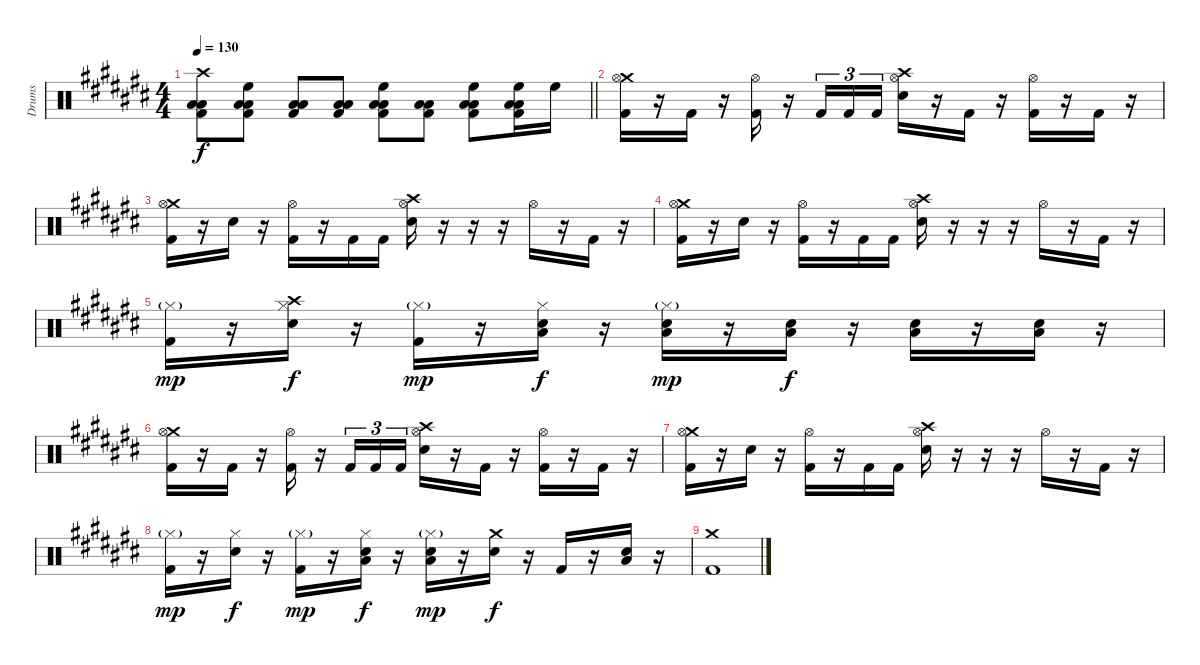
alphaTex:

\track ("Drums" "Drums") {instrument percussion}
\staff {score}
\articulation defaults
\ts (4 4)
\tempo 130
\clef neutral
\barLineRight lightlight
\ks a#minor
("Crash high (hit)" "Low Tom (hit)" "Low Floor Tom (hit)" "Kick (hit) 2").8{dy f} ("High Floor Tom (hit)" "Low Tom (hit)" "Low Floor Tom (hit)" "Kick (hit) 2").8 ("Low Tom (hit)" "Low Floor Tom (hit)" "Kick (hit) 2").8 ("Low Tom (hit)" "Low Floor Tom (hit)" "Kick (hit) 2").8 ("High Floor Tom (hit)" "Low Tom (hit)" "Low Floor Tom (hit)" "Kick (hit) 2").8 ("Low Tom (hit)" "Low Floor Tom (hit)" "Kick (hit) 2").8 ("High Floor Tom (hit)" "Low Tom (hit)" "Low Floor Tom (hit)" "Kick (hit) 2").8 ("High Floor Tom (hit)" "Low Tom (hit)" "Low Floor Tom (hit)" "Kick (hit) 2").16 "High Floor Tom (hit)".16 |
\section ("" "")
("Crash medium (hit)" "Hi-Hat (open)" "Kick (hit) 2").16 r.16 "Kick (hit) 2".16 r.16 ("Hi-Hat (open)" "Kick (hit) 2").16 r.16 "Kick (hit) 2".16{tu (3 2)} "Kick (hit) 2".16{tu (3 2)} "Kick (hit) 2".16{tu (3 2)} ("Crash high (hit)" "Hi-Hat (open)" "Electric Snare (hit)").16 r.16 "Kick (hit) 2".16 r.16 ("Hi-Hat (open)" "Kick (hit) 2").16 r.16 "Kick (hit) 2".16 r.16 |
("Crash medium (hit)" "Hi-Hat (open)" "Kick (hit) 2").16 r.16 "Electric Snare (hit)".16 r.16 ("Hi-Hat (open)" "Kick (hit) 2").16 r.16 "Kick (hit) 2".16 "Kick (hit) 2".16 ("Crash high (hit)" "Hi-Hat (open)" "Electric Snare (hit)").16 r.16 r.16 r.16 "Hi-Hat (open)".16 r.16 "Kick (hit) 2".16 r.16 |
("Crash medium (hit)" "Hi-Hat (open)" "Kick (hit) 2").16 r.16 "Electric Snare (hit)".16 r.16 ("Hi-Hat (open)" "Kick (hit) 2").16 r.16 "Kick (hit) 2".16 "Kick (hit) 2".16 ("Crash high (hit)" "Hi-Hat (open)" "Electric Snare (hit)").16 r.16 r.16 r.16 "Hi-Hat (open)".16 r.16 "Kick (hit) 2".16 r.16 |
("Hi-Hat (closed)"{g} "Kick (hit) 2").16{dy mp} r.16 ("Crash high (hit)" "Hi-Hat (closed)" "Electric Snare (hit)").16{dy f} r.16 ("Hi-Hat (closed)"{g} "Kick (hit) 2").16{dy mp} r.16 ("Hi-Hat (closed)" "Low Tom (hit)" "Electric Snare (hit)").16{dy f} r.16 ("Hi-Hat (closed)"{g} "Low Tom (hit)" "Electric Snare (hit)").16{dy mp} r.16 ("Low Tom (hit)" "Electric Snare (hit)").16{dy f} r.16 ("Low Tom (hit)" "Electric Snare (hit)").16 r.16 ("Low Tom (hit)" "Electric Snare (hit)").16 r.16 |
("Crash medium (hit)" "Hi-Hat (open)" "Kick (hit) 2").16 r.16 "Kick (hit) 2".16 r.16 ("Hi-Hat (open)" "Kick (hit) 2").16 r.16 "Kick (hit) 2".16{tu (3 2)} "Kick (hit) 2".16{tu (3 2)} "Kick (hit) 2".16{tu (3 2)} ("Crash high (hit)" "Hi-Hat (open)" "Electric Snare (hit)").16 r.16 "Kick (hit) 2".16 r.16 ("Hi-Hat (open)" "Kick (hit) 2").16 r.16 "Kick (hit) 2".16 r.16 |
("Crash medium (hit)" "Hi-Hat (open)" "Kick (hit) 2").16 r.16 "Electric Snare (hit)".16 r.16 ("Hi-Hat (open)" "Kick (hit) 2").16 r.16 "Kick (hit) 2".16 "Kick (hit) 2".16 ("Crash high (hit)" "Hi-Hat (open)" "Electric Snare (hit)").16 r.16 r.16 r.16 "Hi-Hat (open)".16 r.16 "Kick (hit) 2".16 r.16 |
("Hi-Hat (closed)"{g} "Kick (hit) 2").16{dy mp} r.16 ("Hi-Hat (closed)" "Electric Snare (hit)").16{dy f} r.16 ("Hi-Hat (closed)"{g} "Kick (hit) 2").16{dy mp} r.16 ("Hi-Hat (closed)" "Low Tom (hit)" "Electric Snare (hit)").16{dy f} r.16 ("Hi-Hat (closed)"{g} "Low Tom (hit)" "Electric Snare (hit)").16{dy mp} r.16 ("Crash medium (hit)" "Electric Snare (hit)").16{dy f} r.16 "Kick (hit) 2".16 r.16 ("Low Tom (hit)" "Electric Snare (hit)").16 r.16 |
("Crash medium (hit)" "Kick (hit) 2").1
